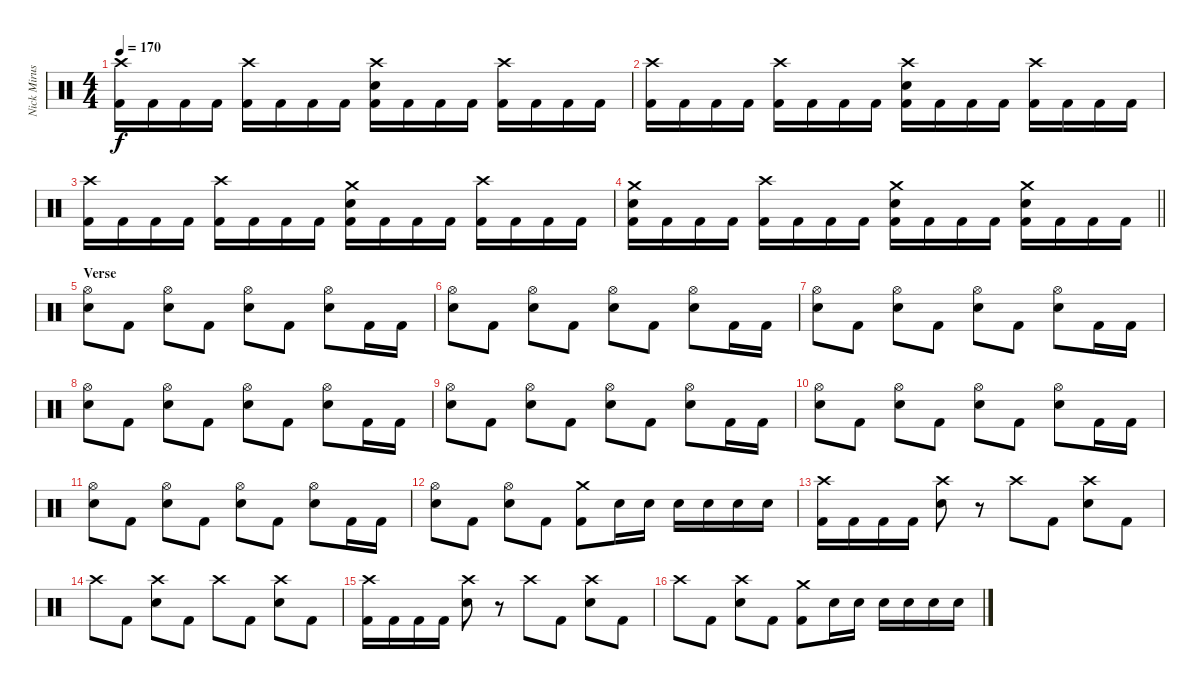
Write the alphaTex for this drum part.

\track ("Nick Mirusso - Drums" "Nick Mirus") {instrument percussion}
\staff {score}
\articulation defaults
\ts (4 4)
\tempo 170
\clef neutral
\ks c
("Crash high (hit)" "Kick (hit) 2").16{dy f} "Kick (hit) 2".16 "Kick (hit) 2".16 "Kick (hit) 2".16 ("Crash high (hit)" "Kick (hit) 2").16 "Kick (hit) 2".16 "Kick (hit) 2".16 "Kick (hit) 2".16 ("Crash high (hit)" "Electric Snare (hit)" "Kick (hit) 2").16 "Kick (hit) 2".16 "Kick (hit) 2".16 "Kick (hit) 2".16 ("Crash high (hit)" "Kick (hit) 2").16 "Kick (hit) 2".16 "Kick (hit) 2".16 "Kick (hit) 2".16 |
("Crash high (hit)" "Kick (hit) 2").16 "Kick (hit) 2".16 "Kick (hit) 2".16 "Kick (hit) 2".16 ("Crash high (hit)" "Kick (hit) 2").16 "Kick (hit) 2".16 "Kick (hit) 2".16 "Kick (hit) 2".16 ("Crash high (hit)" "Electric Snare (hit)" "Kick (hit) 2").16 "Kick (hit) 2".16 "Kick (hit) 2".16 "Kick (hit) 2".16 ("Crash high (hit)" "Kick (hit) 2").16 "Kick (hit) 2".16 "Kick (hit) 2".16 "Kick (hit) 2".16 |
("Crash high (hit)" "Kick (hit) 2").16 "Kick (hit) 2".16 "Kick (hit) 2".16 "Kick (hit) 2".16 ("Crash high (hit)" "Kick (hit) 2").16 "Kick (hit) 2".16 "Kick (hit) 2".16 "Kick (hit) 2".16 ("Crash medium (hit)" "Electric Snare (hit)" "Kick (hit) 2").16 "Kick (hit) 2".16 "Kick (hit) 2".16 "Kick (hit) 2".16 ("Crash high (hit)" "Kick (hit) 2").16 "Kick (hit) 2".16 "Kick (hit) 2".16 "Kick (hit) 2".16 |
\barLineRight lightlight
("Crash medium (hit)" "Electric Snare (hit)" "Kick (hit) 2").16 "Kick (hit) 2".16 "Kick (hit) 2".16 "Kick (hit) 2".16 ("Crash high (hit)" "Kick (hit) 2").16 "Kick (hit) 2".16 "Kick (hit) 2".16 "Kick (hit) 2".16 ("Crash medium (hit)" "Electric Snare (hit)" "Kick (hit) 2").16 "Kick (hit) 2".16 "Kick (hit) 2".16 "Kick (hit) 2".16 ("Crash medium (hit)" "Electric Snare (hit)" "Kick (hit) 2").16 "Kick (hit) 2".16 "Kick (hit) 2".16 "Kick (hit) 2".16 |
\section ("" "Verse")
("Hi-Hat (open)" "Electric Snare (hit)").8 "Kick (hit) 2".8 ("Hi-Hat (open)" "Electric Snare (hit)").8 "Kick (hit) 2".8 ("Hi-Hat (open)" "Electric Snare (hit)").8 "Kick (hit) 2".8 ("Hi-Hat (open)" "Electric Snare (hit)").8 "Kick (hit) 2".16 "Kick (hit) 2".16 |
("Hi-Hat (open)" "Electric Snare (hit)").8 "Kick (hit) 2".8 ("Hi-Hat (open)" "Electric Snare (hit)").8 "Kick (hit) 2".8 ("Hi-Hat (open)" "Electric Snare (hit)").8 "Kick (hit) 2".8 ("Hi-Hat (open)" "Electric Snare (hit)").8 "Kick (hit) 2".16 "Kick (hit) 2".16 |
("Hi-Hat (open)" "Electric Snare (hit)").8 "Kick (hit) 2".8 ("Hi-Hat (open)" "Electric Snare (hit)").8 "Kick (hit) 2".8 ("Hi-Hat (open)" "Electric Snare (hit)").8 "Kick (hit) 2".8 ("Hi-Hat (open)" "Electric Snare (hit)").8 "Kick (hit) 2".16 "Kick (hit) 2".16 |
("Hi-Hat (open)" "Electric Snare (hit)").8 "Kick (hit) 2".8 ("Hi-Hat (open)" "Electric Snare (hit)").8 "Kick (hit) 2".8 ("Hi-Hat (open)" "Electric Snare (hit)").8 "Kick (hit) 2".8 ("Hi-Hat (open)" "Electric Snare (hit)").8 "Kick (hit) 2".16 "Kick (hit) 2".16 |
("Hi-Hat (open)" "Electric Snare (hit)").8 "Kick (hit) 2".8 ("Hi-Hat (open)" "Electric Snare (hit)").8 "Kick (hit) 2".8 ("Hi-Hat (open)" "Electric Snare (hit)").8 "Kick (hit) 2".8 ("Hi-Hat (open)" "Electric Snare (hit)").8 "Kick (hit) 2".16 "Kick (hit) 2".16 |
("Hi-Hat (open)" "Electric Snare (hit)").8 "Kick (hit) 2".8 ("Hi-Hat (open)" "Electric Snare (hit)").8 "Kick (hit) 2".8 ("Hi-Hat (open)" "Electric Snare (hit)").8 "Kick (hit) 2".8 ("Hi-Hat (open)" "Electric Snare (hit)").8 "Kick (hit) 2".16 "Kick (hit) 2".16 |
("Hi-Hat (open)" "Electric Snare (hit)").8 "Kick (hit) 2".8 ("Hi-Hat (open)" "Electric Snare (hit)").8 "Kick (hit) 2".8 ("Hi-Hat (open)" "Electric Snare (hit)").8 "Kick (hit) 2".8 ("Hi-Hat (open)" "Electric Snare (hit)").8 "Kick (hit) 2".16 "Kick (hit) 2".16 |
("Hi-Hat (open)" "Electric Snare (hit)").8 "Kick (hit) 2".8 ("Hi-Hat (open)" "Electric Snare (hit)").8 "Kick (hit) 2".8 ("Crash medium (hit)" "Kick (hit) 2").8 "Electric Snare (hit)".16 "Electric Snare (hit)".16 "Electric Snare (hit)".16 "Electric Snare (hit)".16 "Electric Snare (hit)".16 "Electric Snare (hit)".16 |
("Crash high (hit)" "Kick (hit) 2").16 "Kick (hit) 2".16 "Kick (hit) 2".16 "Kick (hit) 2".16 ("Crash high (hit)" "Electric Snare (hit)").8 r.8 "Crash high (hit)".8 "Kick (hit) 2".8 ("Crash high (hit)" "Electric Snare (hit)").8 "Kick (hit) 2".8 |
"Crash high (hit)".8 "Kick (hit) 2".8 ("Crash high (hit)" "Electric Snare (hit)").8 "Kick (hit) 2".8 "Crash high (hit)".8 "Kick (hit) 2".8 ("Crash high (hit)" "Electric Snare (hit)").8 "Kick (hit) 2".8 |
("Crash high (hit)" "Kick (hit) 2").16 "Kick (hit) 2".16 "Kick (hit) 2".16 "Kick (hit) 2".16 ("Crash high (hit)" "Electric Snare (hit)").8 r.8 "Crash high (hit)".8 "Kick (hit) 2".8 ("Crash high (hit)" "Electric Snare (hit)").8 "Kick (hit) 2".8 |
"Crash high (hit)".8 "Kick (hit) 2".8 ("Crash high (hit)" "Electric Snare (hit)").8 "Kick (hit) 2".8 ("Crash medium (hit)" "Kick (hit) 2").8 "Electric Snare (hit)".16 "Electric Snare (hit)".16 "Electric Snare (hit)".16 "Electric Snare (hit)".16 "Electric Snare (hit)".16 "Electric Snare (hit)".16
